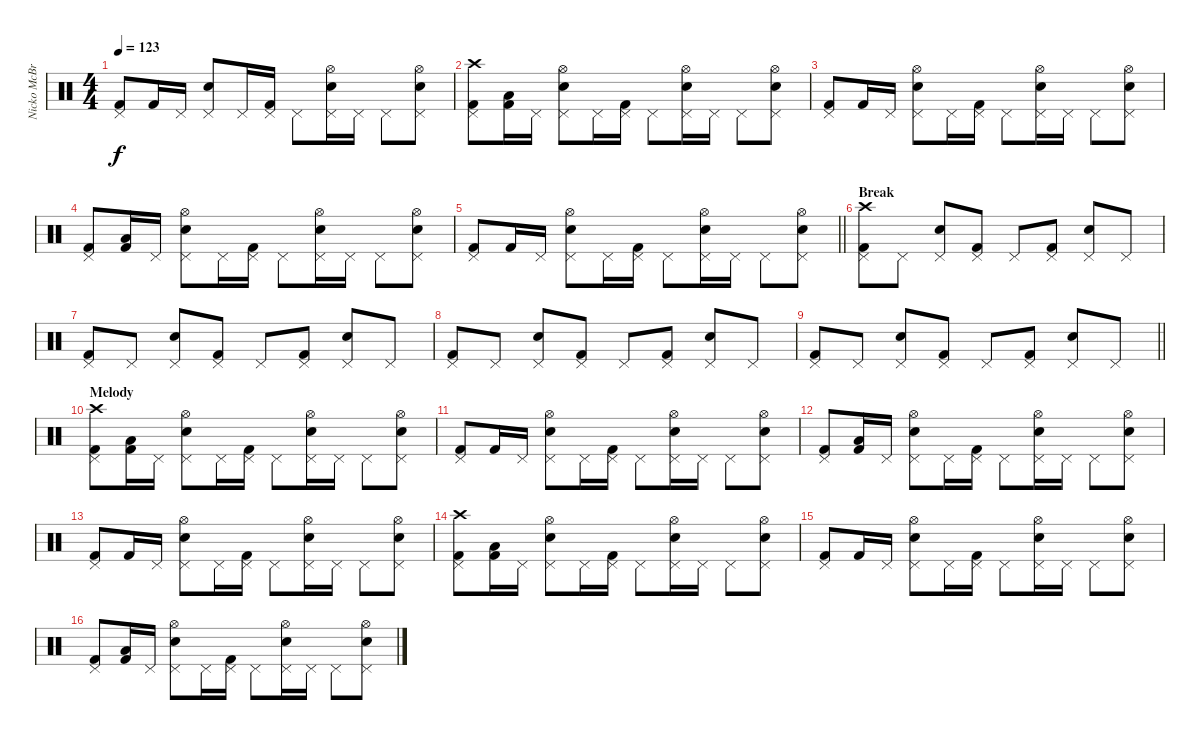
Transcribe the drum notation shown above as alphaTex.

\track ("Nicko McBrain" "Nicko McBr") {instrument percussion}
\staff {score}
\articulation defaults
\ts (4 4)
\tempo 123
\clef neutral
\ks c
("Kick (hit) 2" "Pedal Hi-Hat (hit)").8{dy f} "Kick (hit) 2".16 "Pedal Hi-Hat (hit)".16 ("Snare (hit) 2" "Pedal Hi-Hat (hit)").8 "Pedal Hi-Hat (hit)".16 ("Kick (hit) 2" "Pedal Hi-Hat (hit)").16 "Pedal Hi-Hat (hit)".8 ("Snare (hit) 2" "Pedal Hi-Hat (hit)" "Hi-Hat (open)").16 "Pedal Hi-Hat (hit)".16 "Pedal Hi-Hat (hit)".8 ("Snare (hit) 2" "Pedal Hi-Hat (hit)" "Hi-Hat (open)").8 |
("Kick (hit) 2" "Pedal Hi-Hat (hit)" "Crash high (hit)").8 ("Kick (hit) 2" "Low Tom (hit)").16 "Pedal Hi-Hat (hit)".16 ("Snare (hit) 2" "Pedal Hi-Hat (hit)" "Hi-Hat (open)").8 "Pedal Hi-Hat (hit)".16 ("Kick (hit) 2" "Pedal Hi-Hat (hit)").16 "Pedal Hi-Hat (hit)".8 ("Snare (hit) 2" "Pedal Hi-Hat (hit)" "Hi-Hat (open)").16 "Pedal Hi-Hat (hit)".16 "Pedal Hi-Hat (hit)".8 ("Snare (hit) 2" "Pedal Hi-Hat (hit)" "Hi-Hat (open)").8 |
("Kick (hit) 2" "Pedal Hi-Hat (hit)").8 "Kick (hit) 2".16 "Pedal Hi-Hat (hit)".16 ("Snare (hit) 2" "Pedal Hi-Hat (hit)" "Hi-Hat (open)").8 "Pedal Hi-Hat (hit)".16 ("Kick (hit) 2" "Pedal Hi-Hat (hit)").16 "Pedal Hi-Hat (hit)".8 ("Snare (hit) 2" "Pedal Hi-Hat (hit)" "Hi-Hat (open)").16 "Pedal Hi-Hat (hit)".16 "Pedal Hi-Hat (hit)".8 ("Snare (hit) 2" "Pedal Hi-Hat (hit)" "Hi-Hat (open)").8 |
("Kick (hit) 2" "Pedal Hi-Hat (hit)").8 ("Kick (hit) 2" "Low Tom (hit)").16 "Pedal Hi-Hat (hit)".16 ("Snare (hit) 2" "Pedal Hi-Hat (hit)" "Hi-Hat (open)").8 "Pedal Hi-Hat (hit)".16 ("Kick (hit) 2" "Pedal Hi-Hat (hit)").16 "Pedal Hi-Hat (hit)".8 ("Snare (hit) 2" "Pedal Hi-Hat (hit)" "Hi-Hat (open)").16 "Pedal Hi-Hat (hit)".16 "Pedal Hi-Hat (hit)".8 ("Snare (hit) 2" "Pedal Hi-Hat (hit)" "Hi-Hat (open)").8 |
\barLineRight lightlight
("Kick (hit) 2" "Pedal Hi-Hat (hit)").8 "Kick (hit) 2".16 "Pedal Hi-Hat (hit)".16 ("Snare (hit) 2" "Pedal Hi-Hat (hit)" "Hi-Hat (open)").8 "Pedal Hi-Hat (hit)".16 ("Kick (hit) 2" "Pedal Hi-Hat (hit)").16 "Pedal Hi-Hat (hit)".8 ("Snare (hit) 2" "Pedal Hi-Hat (hit)" "Hi-Hat (open)").16 "Pedal Hi-Hat (hit)".16 "Pedal Hi-Hat (hit)".8 ("Snare (hit) 2" "Pedal Hi-Hat (hit)" "Hi-Hat (open)").8 |
\section ("" "Break")
("Kick (hit) 2" "Pedal Hi-Hat (hit)" "Crash high (hit)").8 "Pedal Hi-Hat (hit)".8 ("Snare (hit) 2" "Pedal Hi-Hat (hit)").8 ("Kick (hit) 2" "Pedal Hi-Hat (hit)").8 "Pedal Hi-Hat (hit)".8 ("Kick (hit) 2" "Pedal Hi-Hat (hit)").8 ("Snare (hit) 2" "Pedal Hi-Hat (hit)").8 "Pedal Hi-Hat (hit)".8 |
("Kick (hit) 2" "Pedal Hi-Hat (hit)").8 "Pedal Hi-Hat (hit)".8 ("Snare (hit) 2" "Pedal Hi-Hat (hit)").8 ("Kick (hit) 2" "Pedal Hi-Hat (hit)").8 "Pedal Hi-Hat (hit)".8 ("Kick (hit) 2" "Pedal Hi-Hat (hit)").8 ("Snare (hit) 2" "Pedal Hi-Hat (hit)").8 "Pedal Hi-Hat (hit)".8 |
("Kick (hit) 2" "Pedal Hi-Hat (hit)").8 "Pedal Hi-Hat (hit)".8 ("Snare (hit) 2" "Pedal Hi-Hat (hit)").8 ("Kick (hit) 2" "Pedal Hi-Hat (hit)").8 "Pedal Hi-Hat (hit)".8 ("Kick (hit) 2" "Pedal Hi-Hat (hit)").8 ("Snare (hit) 2" "Pedal Hi-Hat (hit)").8 "Pedal Hi-Hat (hit)".8 |
\barLineRight lightlight
("Kick (hit) 2" "Pedal Hi-Hat (hit)").8 "Pedal Hi-Hat (hit)".8 ("Snare (hit) 2" "Pedal Hi-Hat (hit)").8 ("Kick (hit) 2" "Pedal Hi-Hat (hit)").8 "Pedal Hi-Hat (hit)".8 ("Kick (hit) 2" "Pedal Hi-Hat (hit)").8 ("Snare (hit) 2" "Pedal Hi-Hat (hit)").8 "Pedal Hi-Hat (hit)".8 |
\section ("" "Melody")
("Kick (hit) 2" "Pedal Hi-Hat (hit)" "Crash high (hit)").8 ("Kick (hit) 2" "Low Tom (hit)").16 "Pedal Hi-Hat (hit)".16 ("Snare (hit) 2" "Pedal Hi-Hat (hit)" "Hi-Hat (open)").8 "Pedal Hi-Hat (hit)".16 ("Kick (hit) 2" "Pedal Hi-Hat (hit)").16 "Pedal Hi-Hat (hit)".8 ("Snare (hit) 2" "Pedal Hi-Hat (hit)" "Hi-Hat (open)").16 "Pedal Hi-Hat (hit)".16 "Pedal Hi-Hat (hit)".8 ("Snare (hit) 2" "Pedal Hi-Hat (hit)" "Hi-Hat (open)").8 |
("Kick (hit) 2" "Pedal Hi-Hat (hit)").8 "Kick (hit) 2".16 "Pedal Hi-Hat (hit)".16 ("Snare (hit) 2" "Pedal Hi-Hat (hit)" "Hi-Hat (open)").8 "Pedal Hi-Hat (hit)".16 ("Kick (hit) 2" "Pedal Hi-Hat (hit)").16 "Pedal Hi-Hat (hit)".8 ("Snare (hit) 2" "Pedal Hi-Hat (hit)" "Hi-Hat (open)").16 "Pedal Hi-Hat (hit)".16 "Pedal Hi-Hat (hit)".8 ("Snare (hit) 2" "Pedal Hi-Hat (hit)" "Hi-Hat (open)").8 |
("Kick (hit) 2" "Pedal Hi-Hat (hit)").8 ("Kick (hit) 2" "Low Tom (hit)").16 "Pedal Hi-Hat (hit)".16 ("Snare (hit) 2" "Pedal Hi-Hat (hit)" "Hi-Hat (open)").8 "Pedal Hi-Hat (hit)".16 ("Kick (hit) 2" "Pedal Hi-Hat (hit)").16 "Pedal Hi-Hat (hit)".8 ("Snare (hit) 2" "Pedal Hi-Hat (hit)" "Hi-Hat (open)").16 "Pedal Hi-Hat (hit)".16 "Pedal Hi-Hat (hit)".8 ("Snare (hit) 2" "Pedal Hi-Hat (hit)" "Hi-Hat (open)").8 |
("Kick (hit) 2" "Pedal Hi-Hat (hit)").8 "Kick (hit) 2".16 "Pedal Hi-Hat (hit)".16 ("Snare (hit) 2" "Pedal Hi-Hat (hit)" "Hi-Hat (open)").8 "Pedal Hi-Hat (hit)".16 ("Kick (hit) 2" "Pedal Hi-Hat (hit)").16 "Pedal Hi-Hat (hit)".8 ("Snare (hit) 2" "Pedal Hi-Hat (hit)" "Hi-Hat (open)").16 "Pedal Hi-Hat (hit)".16 "Pedal Hi-Hat (hit)".8 ("Snare (hit) 2" "Pedal Hi-Hat (hit)" "Hi-Hat (open)").8 |
("Kick (hit) 2" "Pedal Hi-Hat (hit)" "Crash high (hit)").8 ("Kick (hit) 2" "Low Tom (hit)").16 "Pedal Hi-Hat (hit)".16 ("Snare (hit) 2" "Pedal Hi-Hat (hit)" "Hi-Hat (open)").8 "Pedal Hi-Hat (hit)".16 ("Kick (hit) 2" "Pedal Hi-Hat (hit)").16 "Pedal Hi-Hat (hit)".8 ("Snare (hit) 2" "Pedal Hi-Hat (hit)" "Hi-Hat (open)").16 "Pedal Hi-Hat (hit)".16 "Pedal Hi-Hat (hit)".8 ("Snare (hit) 2" "Pedal Hi-Hat (hit)" "Hi-Hat (open)").8 |
("Kick (hit) 2" "Pedal Hi-Hat (hit)").8 "Kick (hit) 2".16 "Pedal Hi-Hat (hit)".16 ("Snare (hit) 2" "Pedal Hi-Hat (hit)" "Hi-Hat (open)").8 "Pedal Hi-Hat (hit)".16 ("Kick (hit) 2" "Pedal Hi-Hat (hit)").16 "Pedal Hi-Hat (hit)".8 ("Snare (hit) 2" "Pedal Hi-Hat (hit)" "Hi-Hat (open)").16 "Pedal Hi-Hat (hit)".16 "Pedal Hi-Hat (hit)".8 ("Snare (hit) 2" "Pedal Hi-Hat (hit)" "Hi-Hat (open)").8 |
("Kick (hit) 2" "Pedal Hi-Hat (hit)").8 ("Kick (hit) 2" "Low Tom (hit)").16 "Pedal Hi-Hat (hit)".16 ("Snare (hit) 2" "Pedal Hi-Hat (hit)" "Hi-Hat (open)").8 "Pedal Hi-Hat (hit)".16 ("Kick (hit) 2" "Pedal Hi-Hat (hit)").16 "Pedal Hi-Hat (hit)".8 ("Snare (hit) 2" "Pedal Hi-Hat (hit)" "Hi-Hat (open)").16 "Pedal Hi-Hat (hit)".16 "Pedal Hi-Hat (hit)".8 ("Snare (hit) 2" "Pedal Hi-Hat (hit)" "Hi-Hat (open)").8
